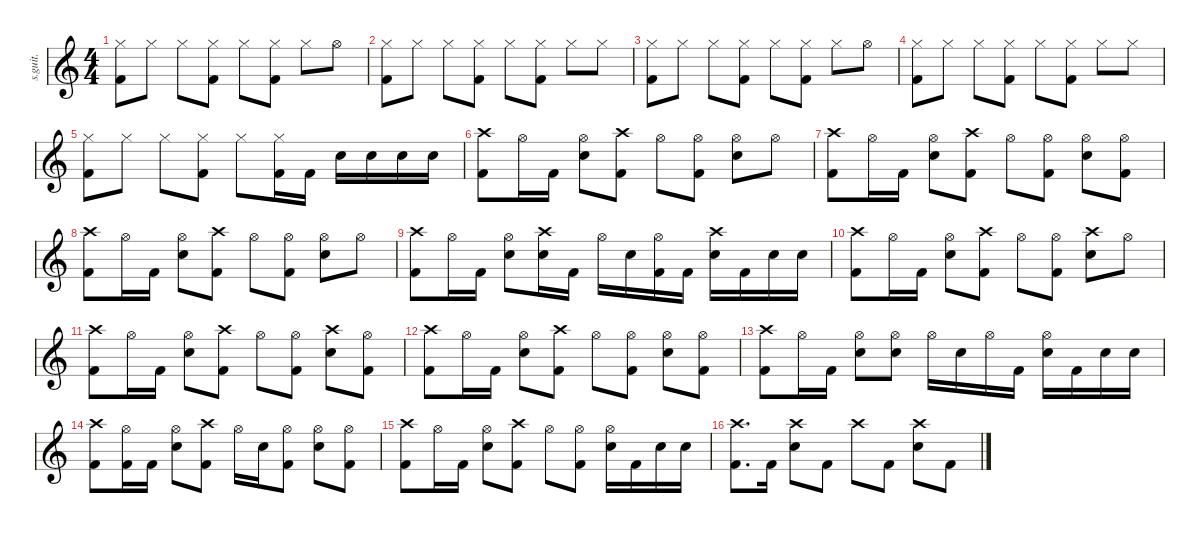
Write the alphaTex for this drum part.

\defaultSystemsLayout 4
\hideDynamics
\bracketExtendMode nobrackets
\track ("" "s.guit.") {instrument percussion}
\staff {score}
\articulation defaults
\ts (4 4)
\tempo (95 hide)
\clef g2
\ks c
("Hi-Hat (closed)" "Kick (hit) 2").8{dy f} "Hi-Hat (closed)".8 "Hi-Hat (closed)".8 ("Hi-Hat (closed)" "Kick (hit) 2").8 "Hi-Hat (closed)".8 ("Hi-Hat (closed)" "Kick (hit) 2").8 "Hi-Hat (closed)".8 "Hi-Hat (open)".8 |
("Hi-Hat (closed)" "Kick (hit) 2").8 "Hi-Hat (closed)".8 "Hi-Hat (closed)".8 ("Hi-Hat (closed)" "Kick (hit) 2").8 "Hi-Hat (closed)".8 ("Hi-Hat (closed)" "Kick (hit) 2").8 "Hi-Hat (closed)".8 "Hi-Hat (closed)".8 |
("Hi-Hat (closed)" "Kick (hit) 2").8 "Hi-Hat (closed)".8 "Hi-Hat (closed)".8 ("Hi-Hat (closed)" "Kick (hit) 2").8 "Hi-Hat (closed)".8 ("Hi-Hat (closed)" "Kick (hit) 2").8 "Hi-Hat (closed)".8 "Hi-Hat (open)".8 |
("Hi-Hat (closed)" "Kick (hit) 2").8 "Hi-Hat (closed)".8 "Hi-Hat (closed)".8 ("Hi-Hat (closed)" "Kick (hit) 2").8 "Hi-Hat (closed)".8 ("Hi-Hat (closed)" "Kick (hit) 2").8 "Hi-Hat (closed)".8 "Hi-Hat (closed)".8 |
("Hi-Hat (closed)" "Kick (hit) 2").8 "Hi-Hat (closed)".8 "Hi-Hat (closed)".8 ("Hi-Hat (closed)" "Kick (hit) 2").8 "Hi-Hat (closed)".8 ("Hi-Hat (closed)" "Kick (hit) 2").16 "Kick (hit) 2".16 "Snare (hit) 2".16 "Snare (hit) 2".16 "Snare (hit) 2".16 "Snare (hit) 2".16 |
("Crash high (hit)" "Kick (hit) 2").8 "Hi-Hat (open)".16 "Kick (hit) 2".16 ("Hi-Hat (open)" "Snare (hit) 2").8 ("Crash high (hit)" "Kick (hit) 2").8 "Hi-Hat (open)".8 ("Hi-Hat (open)" "Kick (hit) 2").8 ("Hi-Hat (open)" "Snare (hit) 2").8 "Hi-Hat (open)".8 |
("Crash high (hit)" "Kick (hit) 2").8 "Hi-Hat (open)".16 "Kick (hit) 2".16 ("Hi-Hat (open)" "Snare (hit) 2").8 ("Crash high (hit)" "Kick (hit) 2").8 "Hi-Hat (open)".8 ("Hi-Hat (open)" "Kick (hit) 2").8 ("Hi-Hat (open)" "Snare (hit) 2").8 ("Hi-Hat (open)" "Kick (hit) 2").8 |
("Crash high (hit)" "Kick (hit) 2").8 "Hi-Hat (open)".16 "Kick (hit) 2".16 ("Hi-Hat (open)" "Snare (hit) 2").8 ("Crash high (hit)" "Kick (hit) 2").8 "Hi-Hat (open)".8 ("Hi-Hat (open)" "Kick (hit) 2").8 ("Hi-Hat (open)" "Snare (hit) 2").8 "Hi-Hat (open)".8 |
("Crash high (hit)" "Kick (hit) 2").8 "Hi-Hat (open)".16 "Kick (hit) 2".16 ("Hi-Hat (open)" "Snare (hit) 2").8 ("Crash high (hit)" "Snare (hit) 2").16 "Kick (hit) 2".16 "Hi-Hat (open)".16 "Snare (hit) 2".16 ("Hi-Hat (open)" "Kick (hit) 2").16 "Kick (hit) 2".16 ("Crash high (hit)" "Snare (hit) 2").16 "Kick (hit) 2".16 "Snare (hit) 2".16 "Snare (hit) 2".16 |
("Crash high (hit)" "Kick (hit) 2").8 "Hi-Hat (open)".16 "Kick (hit) 2".16 ("Hi-Hat (open)" "Snare (hit) 2").8 ("Crash high (hit)" "Kick (hit) 2").8 "Hi-Hat (open)".8 ("Hi-Hat (open)" "Kick (hit) 2").8 ("Crash high (hit)" "Snare (hit) 2").8 "Hi-Hat (open)".8 |
("Crash high (hit)" "Kick (hit) 2").8 "Hi-Hat (open)".16 "Kick (hit) 2".16 ("Hi-Hat (open)" "Snare (hit) 2").8 ("Crash high (hit)" "Kick (hit) 2").8 "Hi-Hat (open)".8 ("Hi-Hat (open)" "Kick (hit) 2").8 ("Crash high (hit)" "Snare (hit) 2").8 ("Hi-Hat (open)" "Kick (hit) 2").8 |
("Crash high (hit)" "Kick (hit) 2").8 "Hi-Hat (open)".16 "Kick (hit) 2".16 ("Hi-Hat (open)" "Snare (hit) 2").8 ("Crash high (hit)" "Kick (hit) 2").8 "Hi-Hat (open)".8 ("Hi-Hat (open)" "Kick (hit) 2").8 ("Hi-Hat (open)" "Snare (hit) 2").8 ("Hi-Hat (open)" "Kick (hit) 2").8 |
("Crash high (hit)" "Kick (hit) 2").8 "Hi-Hat (open)".16 "Kick (hit) 2".16 ("Hi-Hat (open)" "Snare (hit) 2").8 ("Hi-Hat (open)" "Snare (hit) 2").8 "Hi-Hat (open)".16 "Snare (hit) 2".16 "Hi-Hat (open)".16 "Kick (hit) 2".16 ("Hi-Hat (open)" "Snare (hit) 2").16 "Kick (hit) 2".16 "Snare (hit) 2".16 "Snare (hit) 2".16 |
("Crash high (hit)" "Kick (hit) 2").8 ("Hi-Hat (open)" "Kick (hit) 2").16 "Kick (hit) 2".16 ("Hi-Hat (open)" "Snare (hit) 2").8 ("Crash high (hit)" "Kick (hit) 2").8 "Hi-Hat (open)".16 "Snare (hit) 2".16 ("Hi-Hat (open)" "Kick (hit) 2").8 ("Hi-Hat (open)" "Snare (hit) 2").8 ("Hi-Hat (open)" "Kick (hit) 2").8 |
("Crash high (hit)" "Kick (hit) 2").8 "Hi-Hat (open)".16 "Kick (hit) 2".16 ("Hi-Hat (open)" "Snare (hit) 2").8 ("Crash high (hit)" "Kick (hit) 2").8 "Hi-Hat (open)".8 ("Hi-Hat (open)" "Kick (hit) 2").8 ("Hi-Hat (open)" "Snare (hit) 2").16 "Kick (hit) 2".16 "Snare (hit) 2".16 "Snare (hit) 2".16 |
("Crash high (hit)" "Kick (hit) 2").8{d} "Kick (hit) 2".16 ("Crash high (hit)" "Snare (hit) 2").8 "Kick (hit) 2".8 "Crash high (hit)".8 "Kick (hit) 2".8 ("Crash high (hit)" "Snare (hit) 2").8 "Kick (hit) 2".8
